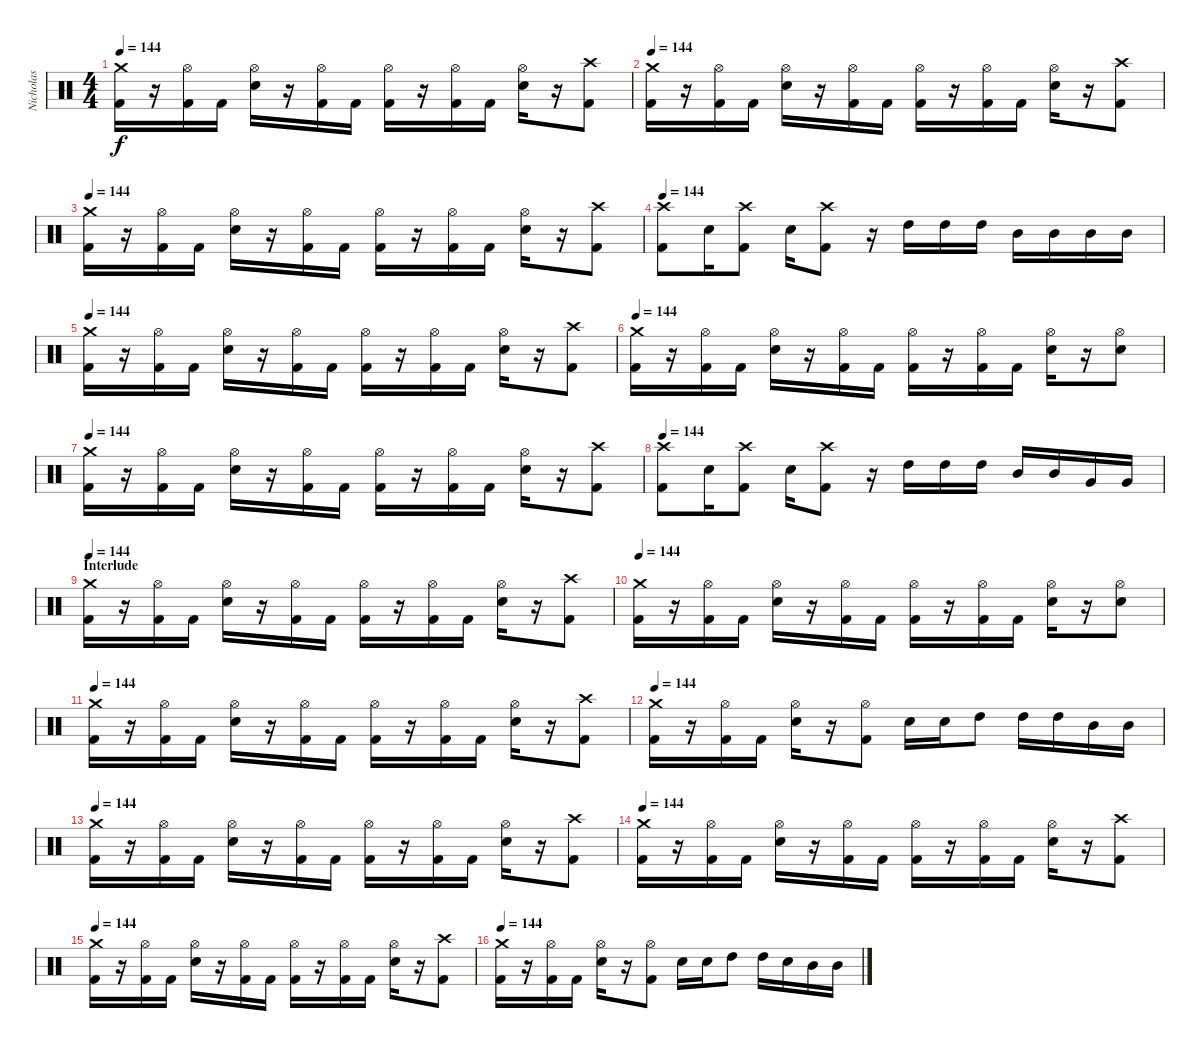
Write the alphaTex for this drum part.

\track ("Nicholas" "Nicholas") {instrument percussion}
\staff {score}
\articulation defaults
\ts (4 4)
\tempo 144
\clef neutral
\ks c
("Crash medium (hit)" "Kick (hit) 2").16{dy f} r.16 ("Hi-Hat (open)" "Kick (hit) 2").16 "Kick (hit) 2".16 ("Hi-Hat (open)" "Snare (hit) 2").16 r.16 ("Hi-Hat (open)" "Kick (hit) 2").16 "Kick (hit) 2".16 ("Hi-Hat (open)" "Kick (hit) 2").16 r.16 ("Hi-Hat (open)" "Kick (hit) 2").16 "Kick (hit) 2".16 ("Hi-Hat (open)" "Snare (hit) 2").16 r.16 ("Crash high (hit)" "Kick (hit) 2").8 |
\tempo 144
("Crash medium (hit)" "Kick (hit) 2").16 r.16 ("Hi-Hat (open)" "Kick (hit) 2").16 "Kick (hit) 2".16 ("Hi-Hat (open)" "Snare (hit) 2").16 r.16 ("Hi-Hat (open)" "Kick (hit) 2").16 "Kick (hit) 2".16 ("Hi-Hat (open)" "Kick (hit) 2").16 r.16 ("Hi-Hat (open)" "Kick (hit) 2").16 "Kick (hit) 2".16 ("Hi-Hat (open)" "Snare (hit) 2").16 r.16 ("Crash high (hit)" "Kick (hit) 2").8 |
\tempo 144
("Crash medium (hit)" "Kick (hit) 2").16 r.16 ("Hi-Hat (open)" "Kick (hit) 2").16 "Kick (hit) 2".16 ("Hi-Hat (open)" "Snare (hit) 2").16 r.16 ("Hi-Hat (open)" "Kick (hit) 2").16 "Kick (hit) 2".16 ("Hi-Hat (open)" "Kick (hit) 2").16 r.16 ("Hi-Hat (open)" "Kick (hit) 2").16 "Kick (hit) 2".16 ("Hi-Hat (open)" "Snare (hit) 2").16 r.16 ("Crash high (hit)" "Kick (hit) 2").8 |
\tempo 144
("Crash high (hit)" "Kick (hit) 2").8 "Snare (hit) 2".16 ("Crash high (hit)" "Kick (hit) 2").8 "Snare (hit) 2".16 ("Crash high (hit)" "Kick (hit) 2").8 r.16 "High Tom (hit)".16 "High Tom (hit)".16 "High Tom (hit)".16 "Mid Tom (hit)".16 "Mid Tom (hit)".16 "Mid Tom (hit)".16 "Mid Tom (hit)".16 |
\tempo 144
("Crash medium (hit)" "Kick (hit) 2").16 r.16 ("Hi-Hat (open)" "Kick (hit) 2").16 "Kick (hit) 2".16 ("Hi-Hat (open)" "Snare (hit) 2").16 r.16 ("Hi-Hat (open)" "Kick (hit) 2").16 "Kick (hit) 2".16 ("Hi-Hat (open)" "Kick (hit) 2").16 r.16 ("Hi-Hat (open)" "Kick (hit) 2").16 "Kick (hit) 2".16 ("Hi-Hat (open)" "Snare (hit) 2").16 r.16 ("Crash high (hit)" "Kick (hit) 2").8 |
\tempo 144
("Crash medium (hit)" "Kick (hit) 2").16 r.16 ("Hi-Hat (open)" "Kick (hit) 2").16 "Kick (hit) 2".16 ("Hi-Hat (open)" "Snare (hit) 2").16 r.16 ("Hi-Hat (open)" "Kick (hit) 2").16 "Kick (hit) 2".16 ("Hi-Hat (open)" "Kick (hit) 2").16 r.16 ("Hi-Hat (open)" "Kick (hit) 2").16 "Kick (hit) 2".16 ("Hi-Hat (open)" "Snare (hit) 2").16 r.16 ("Hi-Hat (open)" "Snare (hit) 2").8 |
\tempo 144
("Crash medium (hit)" "Kick (hit) 2").16 r.16 ("Hi-Hat (open)" "Kick (hit) 2").16 "Kick (hit) 2".16 ("Hi-Hat (open)" "Snare (hit) 2").16 r.16 ("Hi-Hat (open)" "Kick (hit) 2").16 "Kick (hit) 2".16 ("Hi-Hat (open)" "Kick (hit) 2").16 r.16 ("Hi-Hat (open)" "Kick (hit) 2").16 "Kick (hit) 2".16 ("Hi-Hat (open)" "Snare (hit) 2").16 r.16 ("Crash high (hit)" "Kick (hit) 2").8 |
\tempo 144
("Crash high (hit)" "Kick (hit) 2").8 "Snare (hit) 2".16 ("Crash high (hit)" "Kick (hit) 2").8 "Snare (hit) 2".16 ("Crash high (hit)" "Kick (hit) 2").8 r.16 "High Tom (hit)".16 "High Tom (hit)".16 "High Tom (hit)".16 "Mid Tom (hit)".16 "Mid Tom (hit)".16 "Very Low Tom (hit)".16 "Very Low Tom (hit)".16 |
\section ("" "Interlude")
\tempo 144
("Crash medium (hit)" "Kick (hit) 2").16 r.16 ("Hi-Hat (open)" "Kick (hit) 2").16 "Kick (hit) 2".16 ("Hi-Hat (open)" "Snare (hit) 2").16 r.16 ("Hi-Hat (open)" "Kick (hit) 2").16 "Kick (hit) 2".16 ("Hi-Hat (open)" "Kick (hit) 2").16 r.16 ("Hi-Hat (open)" "Kick (hit) 2").16 "Kick (hit) 2".16 ("Hi-Hat (open)" "Snare (hit) 2").16 r.16 ("Crash high (hit)" "Kick (hit) 2").8 |
\tempo 144
("Crash medium (hit)" "Kick (hit) 2").16 r.16 ("Hi-Hat (open)" "Kick (hit) 2").16 "Kick (hit) 2".16 ("Hi-Hat (open)" "Snare (hit) 2").16 r.16 ("Hi-Hat (open)" "Kick (hit) 2").16 "Kick (hit) 2".16 ("Hi-Hat (open)" "Kick (hit) 2").16 r.16 ("Hi-Hat (open)" "Kick (hit) 2").16 "Kick (hit) 2".16 ("Hi-Hat (open)" "Snare (hit) 2").16 r.16 ("Hi-Hat (open)" "Snare (hit) 2").8 |
\tempo 144
("Crash medium (hit)" "Kick (hit) 2").16 r.16 ("Hi-Hat (open)" "Kick (hit) 2").16 "Kick (hit) 2".16 ("Hi-Hat (open)" "Snare (hit) 2").16 r.16 ("Hi-Hat (open)" "Kick (hit) 2").16 "Kick (hit) 2".16 ("Hi-Hat (open)" "Kick (hit) 2").16 r.16 ("Hi-Hat (open)" "Kick (hit) 2").16 "Kick (hit) 2".16 ("Hi-Hat (open)" "Snare (hit) 2").16 r.16 ("Crash high (hit)" "Kick (hit) 2").8 |
\tempo 144
("Crash medium (hit)" "Kick (hit) 2").16 r.16 ("Hi-Hat (open)" "Kick (hit) 2").16 "Kick (hit) 2".16 ("Hi-Hat (open)" "Snare (hit) 2").16 r.16 ("Hi-Hat (open)" "Kick (hit) 2").8 "Snare (hit) 2".16 "Snare (hit) 2".16 "High Tom (hit)".8 "High Tom (hit)".16 "High Tom (hit)".16 "Mid Tom (hit)".16 "Mid Tom (hit)".16 |
\tempo 144
("Crash medium (hit)" "Kick (hit) 2").16 r.16 ("Hi-Hat (open)" "Kick (hit) 2").16 "Kick (hit) 2".16 ("Hi-Hat (open)" "Snare (hit) 2").16 r.16 ("Hi-Hat (open)" "Kick (hit) 2").16 "Kick (hit) 2".16 ("Hi-Hat (open)" "Kick (hit) 2").16 r.16 ("Hi-Hat (open)" "Kick (hit) 2").16 "Kick (hit) 2".16 ("Hi-Hat (open)" "Snare (hit) 2").16 r.16 ("Crash high (hit)" "Kick (hit) 2").8 |
\tempo 144
("Crash medium (hit)" "Kick (hit) 2").16 r.16 ("Hi-Hat (open)" "Kick (hit) 2").16 "Kick (hit) 2".16 ("Hi-Hat (open)" "Snare (hit) 2").16 r.16 ("Hi-Hat (open)" "Kick (hit) 2").16 "Kick (hit) 2".16 ("Hi-Hat (open)" "Kick (hit) 2").16 r.16 ("Hi-Hat (open)" "Kick (hit) 2").16 "Kick (hit) 2".16 ("Hi-Hat (open)" "Snare (hit) 2").16 r.16 ("Crash high (hit)" "Kick (hit) 2").8 |
\tempo 144
("Crash medium (hit)" "Kick (hit) 2").16 r.16 ("Hi-Hat (open)" "Kick (hit) 2").16 "Kick (hit) 2".16 ("Hi-Hat (open)" "Snare (hit) 2").16 r.16 ("Hi-Hat (open)" "Kick (hit) 2").16 "Kick (hit) 2".16 ("Hi-Hat (open)" "Kick (hit) 2").16 r.16 ("Hi-Hat (open)" "Kick (hit) 2").16 "Kick (hit) 2".16 ("Hi-Hat (open)" "Snare (hit) 2").16 r.16 ("Crash high (hit)" "Kick (hit) 2").8 |
\tempo 144
("Crash medium (hit)" "Kick (hit) 2").16 r.16 ("Hi-Hat (open)" "Kick (hit) 2").16 "Kick (hit) 2".16 ("Hi-Hat (open)" "Snare (hit) 2").16 r.16 ("Hi-Hat (open)" "Kick (hit) 2").8 "Snare (hit) 2".16 "Snare (hit) 2".16 "High Tom (hit)".8 "High Tom (hit)".16 "Snare (hit) 2".16 "Mid Tom (hit)".16 "Mid Tom (hit)".16
